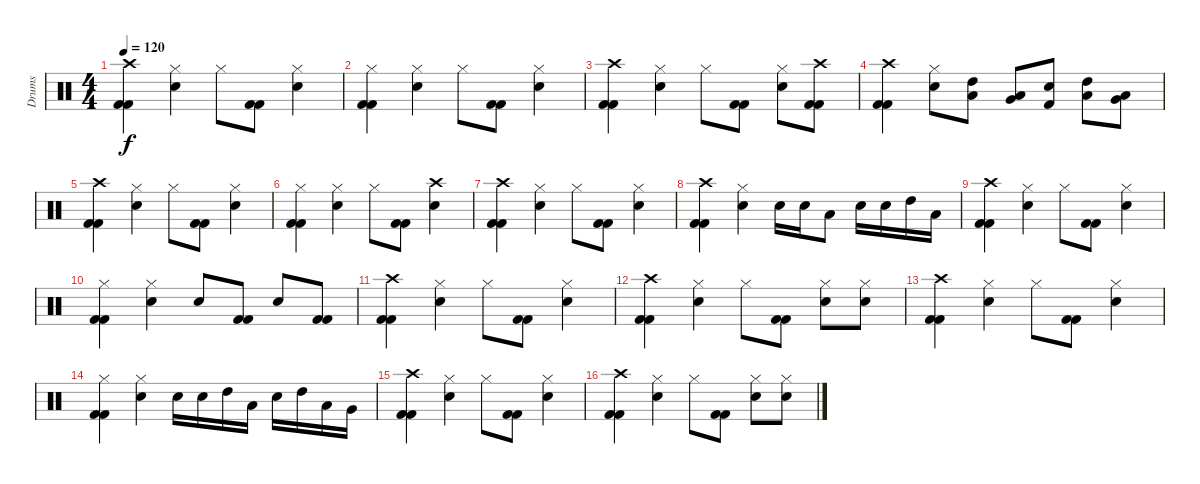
\track ("Drums" "Drums") {instrument percussion}
\staff {score}
\articulation defaults
\ts (4 4)
\tempo 120
\clef neutral
\ks c
("Crash high (hit)" "Kick (hit) 2" "Kick (hit) 2").4{dy f} ("Electric Snare (hit)" "Hi-Hat (closed)").4 "Hi-Hat (closed)".8 ("Kick (hit) 2" "Kick (hit) 2").8 ("Electric Snare (hit)" "Hi-Hat (closed)").4 |
("Hi-Hat (closed)" "Kick (hit) 2" "Kick (hit) 2").4 ("Electric Snare (hit)" "Hi-Hat (closed)").4 "Hi-Hat (closed)".8 ("Kick (hit) 2" "Kick (hit) 2").8 ("Electric Snare (hit)" "Hi-Hat (closed)").4 |
("Crash high (hit)" "Kick (hit) 2" "Kick (hit) 2").4 ("Electric Snare (hit)" "Hi-Hat (closed)").4 "Hi-Hat (closed)".8 ("Kick (hit) 2" "Kick (hit) 2").8 ("Electric Snare (hit)" "Hi-Hat (closed)").8 ("Kick (hit) 2" "Kick (hit) 2" "Crash high (hit)").8 |
("Crash high (hit)" "Kick (hit) 2" "Kick (hit) 2").4 ("Electric Snare (hit)" "Hi-Hat (closed)").8 ("High Tom (hit)" "Low Tom (hit)").8 ("Low Tom (hit)" "Very Low Tom (hit)").8 ("Electric Snare (hit)" "Kick (hit) 2").8 ("High Tom (hit)" "Low Tom (hit)").8 ("Low Tom (hit)" "Very Low Tom (hit)").8 |
("Crash high (hit)" "Kick (hit) 2" "Kick (hit) 2").4 ("Electric Snare (hit)" "Hi-Hat (closed)").4 "Hi-Hat (closed)".8 ("Kick (hit) 2" "Kick (hit) 2").8 ("Electric Snare (hit)" "Hi-Hat (closed)").4 |
("Hi-Hat (closed)" "Kick (hit) 2" "Kick (hit) 2").4 ("Electric Snare (hit)" "Hi-Hat (closed)").4 "Hi-Hat (closed)".8 ("Kick (hit) 2" "Kick (hit) 2").8 ("Electric Snare (hit)" "Crash high (hit)").4 |
("Crash high (hit)" "Kick (hit) 2" "Kick (hit) 2").4 ("Electric Snare (hit)" "Hi-Hat (closed)").4 "Hi-Hat (closed)".8 ("Kick (hit) 2" "Kick (hit) 2").8 ("Electric Snare (hit)" "Hi-Hat (closed)").4 |
("Crash high (hit)" "Kick (hit) 2" "Kick (hit) 2").4 ("Electric Snare (hit)" "Hi-Hat (closed)").4 "Electric Snare (hit)".16 "Electric Snare (hit)".16 "Low Tom (hit)".8 "Electric Snare (hit)".16 "Electric Snare (hit)".16 "High Tom (hit)".16 "Low Tom (hit)".16 |
("Crash high (hit)" "Kick (hit) 2" "Kick (hit) 2").4 ("Electric Snare (hit)" "Hi-Hat (closed)").4 "Hi-Hat (closed)".8 ("Kick (hit) 2" "Kick (hit) 2").8 ("Electric Snare (hit)" "Hi-Hat (closed)").4 |
("Hi-Hat (closed)" "Kick (hit) 2" "Kick (hit) 2").4 ("Electric Snare (hit)" "Hi-Hat (closed)").4 "Electric Snare (hit)".8 ("Kick (hit) 2" "Kick (hit) 2").8 "Electric Snare (hit)".8 ("Kick (hit) 2" "Kick (hit) 2").8 |
("Crash high (hit)" "Kick (hit) 2" "Kick (hit) 2").4 ("Electric Snare (hit)" "Hi-Hat (closed)").4 "Hi-Hat (closed)".8 ("Kick (hit) 2" "Kick (hit) 2").8 ("Electric Snare (hit)" "Hi-Hat (closed)").4 |
("Crash high (hit)" "Kick (hit) 2" "Kick (hit) 2").4 ("Electric Snare (hit)" "Hi-Hat (closed)").4 "Hi-Hat (closed)".8 ("Kick (hit) 2" "Kick (hit) 2").8 ("Electric Snare (hit)" "Hi-Hat (closed)").8 ("Electric Snare (hit)" "Hi-Hat (closed)").8 |
("Crash high (hit)" "Kick (hit) 2" "Kick (hit) 2").4 ("Electric Snare (hit)" "Hi-Hat (closed)").4 "Hi-Hat (closed)".8 ("Kick (hit) 2" "Kick (hit) 2").8 ("Electric Snare (hit)" "Hi-Hat (closed)").4 |
("Hi-Hat (closed)" "Kick (hit) 2" "Kick (hit) 2").4 ("Electric Snare (hit)" "Hi-Hat (closed)").4 "Electric Snare (hit)".16 "Electric Snare (hit)".16 "High Tom (hit)".16 "Low Tom (hit)".16 "Electric Snare (hit)".16 "High Tom (hit)".16 "Low Tom (hit)".16 "Very Low Tom (hit)".16 |
("Crash high (hit)" "Kick (hit) 2" "Kick (hit) 2").4 ("Electric Snare (hit)" "Hi-Hat (closed)").4 "Hi-Hat (closed)".8 ("Kick (hit) 2" "Kick (hit) 2").8 ("Electric Snare (hit)" "Hi-Hat (closed)").4 |
("Crash high (hit)" "Kick (hit) 2" "Kick (hit) 2").4 ("Electric Snare (hit)" "Hi-Hat (closed)").4 "Hi-Hat (closed)".8 ("Kick (hit) 2" "Kick (hit) 2").8 ("Electric Snare (hit)" "Hi-Hat (closed)").8 ("Electric Snare (hit)" "Hi-Hat (closed)").8
